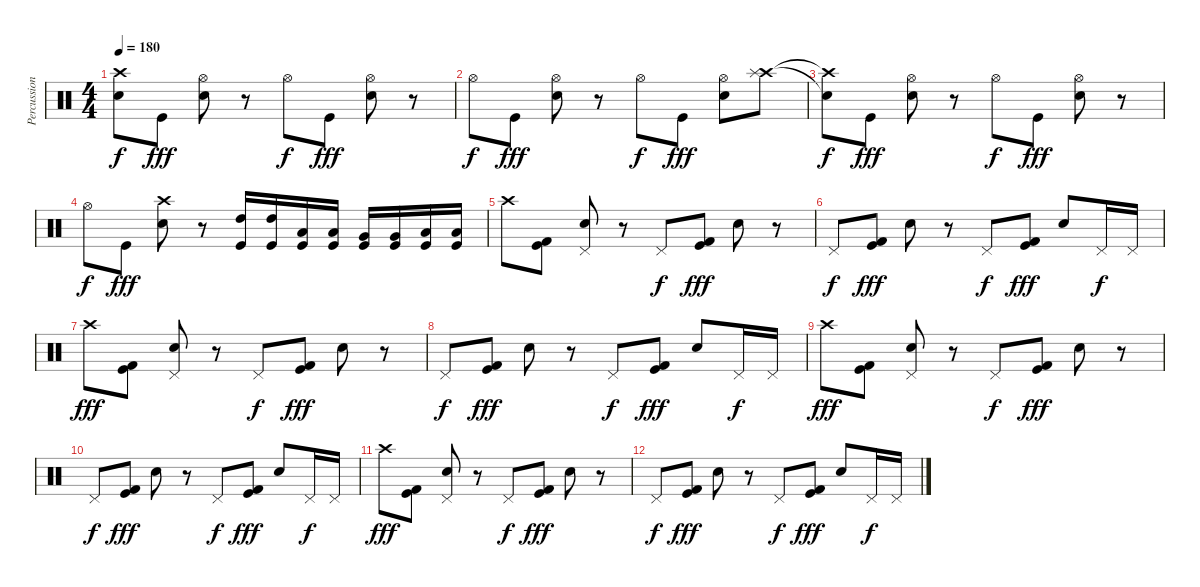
\track ("Percussion" "Percussion") {instrument percussion}
\staff
\articulation defaults
\ts (4 4)
\tempo 180
\clef neutral
\ks c
("Crash high (hit)"{t} "Snare (hit)"{t}).8{dy f} "Kick (hit)".8{dy fff} ("Hi-Hat (open)" "Electric Snare (hit)").8 r.8 "Hi-Hat (open)".8{dy f} "Kick (hit)".8{dy fff} ("Hi-Hat (open)" "Electric Snare (hit)").8 r.8 |
"Hi-Hat (open)".8{dy f} "Kick (hit)".8{dy fff} ("Hi-Hat (open)" "Electric Snare (hit)").8 r.8 "Hi-Hat (open)".8{dy f} "Kick (hit)".8{dy fff} ("Hi-Hat (open)" "Electric Snare (hit)").8 ("Crash high (hit)" "Splash (hit)").8 |
("Crash high (hit)"{t} "Snare (hit)"{t}).8{dy f} "Kick (hit)".8{dy fff} ("Hi-Hat (open)" "Electric Snare (hit)").8 r.8 "Hi-Hat (open)".8{dy f} "Kick (hit)".8{dy fff} ("Hi-Hat (open)" "Electric Snare (hit)").8 r.8 |
"Hi-Hat (open)".8{dy f} "Kick (hit)".8{dy fff} ("Crash high (hit)" "Electric Snare (hit)").8 r.8 ("High Tom (hit)" "Kick (hit)").16 ("High Tom (hit)" "Kick (hit)").16 ("Low Tom (hit)" "Kick (hit)").16 ("Low Tom (hit)" "Kick (hit)").16 ("Very Low Tom (hit)" "Kick (hit)").16 ("Very Low Tom (hit)" "Kick (hit)").16 ("Low Floor Tom (hit)" "Kick (hit)").16 ("Low Floor Tom (hit)" "Kick (hit)").16 |
"Crash high (hit)".8 ("Kick (hit) 2" "Kick (hit)").8 ("Pedal Hi-Hat (hit)" "Electric Snare (hit)").8 r.8 "Pedal Hi-Hat (hit)".8{dy f} ("Kick (hit) 2" "Kick (hit)").8{dy fff} "Electric Snare (hit)".8 r.8 |
"Pedal Hi-Hat (hit)".8{dy f} ("Kick (hit) 2" "Kick (hit)").8{dy fff} "Electric Snare (hit)".8 r.8 "Pedal Hi-Hat (hit)".8{dy f} ("Kick (hit) 2" "Kick (hit)").8{dy fff} "Electric Snare (hit)".8 "Pedal Hi-Hat (hit)".16{dy f} "Pedal Hi-Hat (hit)".16 |
"Crash high (hit)".8{dy fff} ("Kick (hit) 2" "Kick (hit)").8 ("Pedal Hi-Hat (hit)" "Electric Snare (hit)").8 r.8 "Pedal Hi-Hat (hit)".8{dy f} ("Kick (hit) 2" "Kick (hit)").8{dy fff} "Electric Snare (hit)".8 r.8 |
"Pedal Hi-Hat (hit)".8{dy f} ("Kick (hit) 2" "Kick (hit)").8{dy fff} "Electric Snare (hit)".8 r.8 "Pedal Hi-Hat (hit)".8{dy f} ("Kick (hit) 2" "Kick (hit)").8{dy fff} "Electric Snare (hit)".8 "Pedal Hi-Hat (hit)".16{dy f} "Pedal Hi-Hat (hit)".16 |
"Crash high (hit)".8{dy fff} ("Kick (hit) 2" "Kick (hit)").8 ("Pedal Hi-Hat (hit)" "Electric Snare (hit)").8 r.8 "Pedal Hi-Hat (hit)".8{dy f} ("Kick (hit) 2" "Kick (hit)").8{dy fff} "Electric Snare (hit)".8 r.8 |
"Pedal Hi-Hat (hit)".8{dy f} ("Kick (hit) 2" "Kick (hit)").8{dy fff} "Electric Snare (hit)".8 r.8 "Pedal Hi-Hat (hit)".8{dy f} ("Kick (hit) 2" "Kick (hit)").8{dy fff} "Electric Snare (hit)".8 "Pedal Hi-Hat (hit)".16{dy f} "Pedal Hi-Hat (hit)".16 |
"Crash high (hit)".8{dy fff} ("Kick (hit) 2" "Kick (hit)").8 ("Pedal Hi-Hat (hit)" "Electric Snare (hit)").8 r.8 "Pedal Hi-Hat (hit)".8{dy f} ("Kick (hit) 2" "Kick (hit)").8{dy fff} "Electric Snare (hit)".8 r.8 |
"Pedal Hi-Hat (hit)".8{dy f} ("Kick (hit) 2" "Kick (hit)").8{dy fff} "Electric Snare (hit)".8 r.8 "Pedal Hi-Hat (hit)".8{dy f} ("Kick (hit) 2" "Kick (hit)").8{dy fff} "Electric Snare (hit)".8 "Pedal Hi-Hat (hit)".16{dy f} "Pedal Hi-Hat (hit)".16
